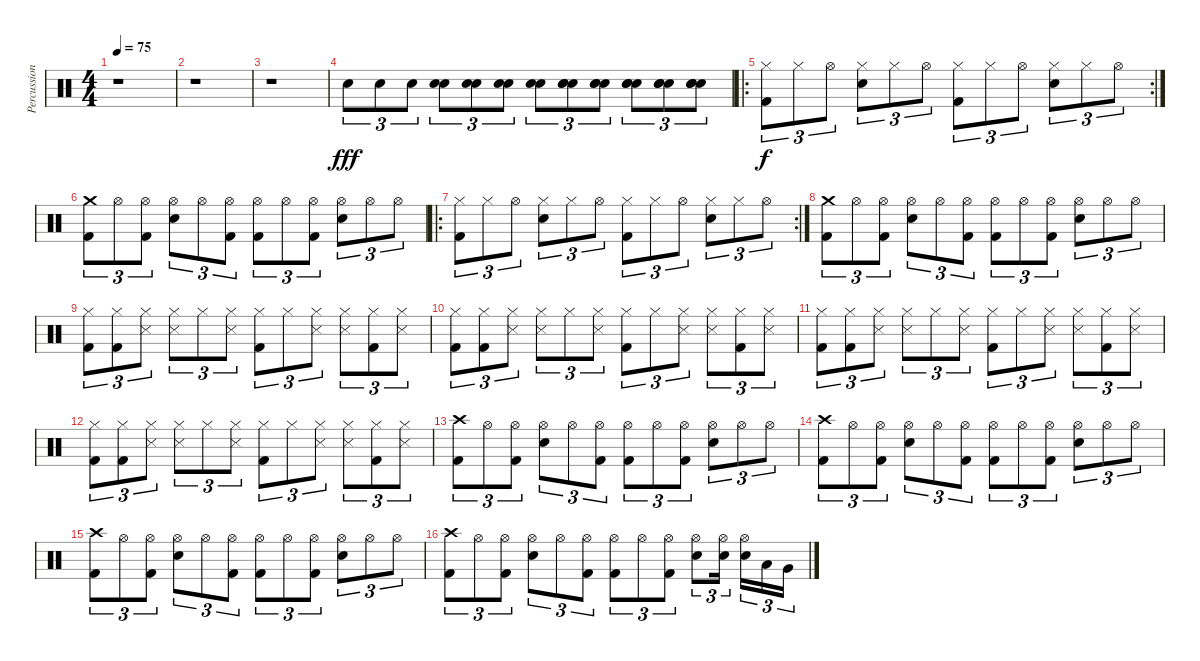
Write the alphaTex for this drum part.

\track ("Percussions" "Percussion") {instrument percussion}
\staff {score}
\articulation defaults
\ts (4 4)
\tempo 75
\clef neutral
\ks c
r.1{dy fff} |
r.1 |
r.1 |
"Electric Snare (hit)".8{tu (3 2)} "Electric Snare (hit)".8{tu (3 2)} "Electric Snare (hit)".8{tu (3 2)} ("Electric Snare (hit)" "Electric Snare (hit)").8{tu (3 2)} ("Electric Snare (hit)" "Electric Snare (hit)").8{tu (3 2)} ("Electric Snare (hit)" "Electric Snare (hit)").8{tu (3 2)} ("Electric Snare (hit)" "Electric Snare (hit)").8{tu (3 2)} ("Electric Snare (hit)" "Electric Snare (hit)" "Electric Snare (hit)").8{tu (3 2)} ("Electric Snare (hit)" "Electric Snare (hit)" "Electric Snare (hit)").8{tu (3 2)} ("Electric Snare (hit)" "Electric Snare (hit)" "Electric Snare (hit)").8{tu (3 2)} ("Electric Snare (hit)" "Electric Snare (hit)" "Electric Snare (hit)").8{tu (3 2)} ("Electric Snare (hit)" "Electric Snare (hit)" "Electric Snare (hit)").8{tu (3 2)} |
\ro
\rc 2
("Hi-Hat (closed)" "Kick (hit) 2").8{tu (3 2) dy f} "Hi-Hat (closed)".8{tu (3 2)} "Hi-Hat (open)".8{tu (3 2)} ("Hi-Hat (closed)" "Electric Snare (hit)").8{tu (3 2)} "Hi-Hat (closed)".8{tu (3 2)} "Hi-Hat (open)".8{tu (3 2)} ("Hi-Hat (closed)" "Kick (hit) 2").8{tu (3 2)} "Hi-Hat (closed)".8{tu (3 2)} "Hi-Hat (open)".8{tu (3 2)} ("Hi-Hat (closed)" "Electric Snare (hit)").8{tu (3 2)} "Hi-Hat (closed)".8{tu (3 2)} "Hi-Hat (open)".8{tu (3 2)} |
("Crash medium (hit)" "Kick (hit) 2").8{tu (3 2)} "Hi-Hat (open)".8{tu (3 2)} ("Hi-Hat (open)" "Kick (hit) 2").8{tu (3 2)} ("Hi-Hat (open)" "Electric Snare (hit)").8{tu (3 2)} "Hi-Hat (open)".8{tu (3 2)} ("Hi-Hat (open)" "Kick (hit) 2").8{tu (3 2)} ("Hi-Hat (open)" "Kick (hit) 2").8{tu (3 2)} "Hi-Hat (open)".8{tu (3 2)} ("Hi-Hat (open)" "Kick (hit) 2").8{tu (3 2)} ("Hi-Hat (open)" "Electric Snare (hit)").8{tu (3 2)} "Hi-Hat (open)".8{tu (3 2)} "Hi-Hat (open)".8{tu (3 2)} |
\ro
\rc 2
("Hi-Hat (closed)" "Kick (hit) 2").8{tu (3 2)} "Hi-Hat (closed)".8{tu (3 2)} "Hi-Hat (open)".8{tu (3 2)} ("Hi-Hat (closed)" "Electric Snare (hit)").8{tu (3 2)} "Hi-Hat (closed)".8{tu (3 2)} "Hi-Hat (open)".8{tu (3 2)} ("Hi-Hat (closed)" "Kick (hit) 2").8{tu (3 2)} "Hi-Hat (closed)".8{tu (3 2)} "Hi-Hat (open)".8{tu (3 2)} ("Hi-Hat (closed)" "Electric Snare (hit)").8{tu (3 2)} "Hi-Hat (closed)".8{tu (3 2)} "Hi-Hat (open)".8{tu (3 2)} |
("Crash medium (hit)" "Kick (hit) 2").8{tu (3 2)} "Hi-Hat (open)".8{tu (3 2)} ("Hi-Hat (open)" "Kick (hit) 2").8{tu (3 2)} ("Hi-Hat (open)" "Electric Snare (hit)").8{tu (3 2)} "Hi-Hat (open)".8{tu (3 2)} ("Hi-Hat (open)" "Kick (hit) 2").8{tu (3 2)} ("Hi-Hat (open)" "Kick (hit) 2").8{tu (3 2)} "Hi-Hat (open)".8{tu (3 2)} ("Hi-Hat (open)" "Kick (hit) 2").8{tu (3 2)} ("Hi-Hat (open)" "Electric Snare (hit)").8{tu (3 2)} "Hi-Hat (open)".8{tu (3 2)} "Hi-Hat (open)".8{tu (3 2)} |
("Hi-Hat (closed)" "Kick (hit) 2").8{tu (3 2)} ("Hi-Hat (closed)" "Kick (hit) 2").8{tu (3 2)} ("Hi-Hat (closed)" "Snare (side stick) 3").8{tu (3 2)} ("Hi-Hat (closed)" "Snare (side stick) 3").8{tu (3 2)} "Hi-Hat (closed)".8{tu (3 2)} ("Hi-Hat (closed)" "Snare (side stick) 3").8{tu (3 2)} ("Hi-Hat (closed)" "Kick (hit) 2").8{tu (3 2)} "Hi-Hat (closed)".8{tu (3 2)} ("Hi-Hat (closed)" "Snare (side stick) 3").8{tu (3 2)} ("Hi-Hat (closed)" "Snare (side stick) 3").8{tu (3 2)} ("Hi-Hat (closed)" "Kick (hit) 2").8{tu (3 2)} ("Hi-Hat (closed)" "Snare (side stick) 3").8{tu (3 2)} |
("Hi-Hat (closed)" "Kick (hit) 2").8{tu (3 2)} ("Hi-Hat (closed)" "Kick (hit) 2").8{tu (3 2)} ("Hi-Hat (closed)" "Snare (side stick) 3").8{tu (3 2)} ("Hi-Hat (closed)" "Snare (side stick) 3").8{tu (3 2)} "Hi-Hat (closed)".8{tu (3 2)} ("Hi-Hat (closed)" "Snare (side stick) 3").8{tu (3 2)} ("Hi-Hat (closed)" "Kick (hit) 2").8{tu (3 2)} "Hi-Hat (closed)".8{tu (3 2)} ("Hi-Hat (closed)" "Snare (side stick) 3").8{tu (3 2)} ("Hi-Hat (closed)" "Snare (side stick) 3").8{tu (3 2)} ("Hi-Hat (closed)" "Kick (hit) 2").8{tu (3 2)} ("Hi-Hat (closed)" "Snare (side stick) 3").8{tu (3 2)} |
("Hi-Hat (closed)" "Kick (hit) 2").8{tu (3 2)} ("Hi-Hat (closed)" "Kick (hit) 2").8{tu (3 2)} ("Hi-Hat (closed)" "Snare (side stick) 3").8{tu (3 2)} ("Hi-Hat (closed)" "Snare (side stick) 3").8{tu (3 2)} "Hi-Hat (closed)".8{tu (3 2)} ("Hi-Hat (closed)" "Snare (side stick) 3").8{tu (3 2)} ("Hi-Hat (closed)" "Kick (hit) 2").8{tu (3 2)} "Hi-Hat (closed)".8{tu (3 2)} ("Hi-Hat (closed)" "Snare (side stick) 3").8{tu (3 2)} ("Hi-Hat (closed)" "Snare (side stick) 3").8{tu (3 2)} ("Hi-Hat (closed)" "Kick (hit) 2").8{tu (3 2)} ("Hi-Hat (closed)" "Snare (side stick) 3").8{tu (3 2)} |
("Hi-Hat (closed)" "Kick (hit) 2").8{tu (3 2)} ("Hi-Hat (closed)" "Kick (hit) 2").8{tu (3 2)} ("Hi-Hat (closed)" "Snare (side stick) 3").8{tu (3 2)} ("Hi-Hat (closed)" "Snare (side stick) 3").8{tu (3 2)} "Hi-Hat (closed)".8{tu (3 2)} ("Hi-Hat (closed)" "Snare (side stick) 3").8{tu (3 2)} ("Hi-Hat (closed)" "Kick (hit) 2").8{tu (3 2)} "Hi-Hat (closed)".8{tu (3 2)} ("Hi-Hat (closed)" "Snare (side stick) 3").8{tu (3 2)} ("Hi-Hat (closed)" "Snare (side stick) 3").8{tu (3 2)} ("Hi-Hat (closed)" "Kick (hit) 2").8{tu (3 2)} ("Hi-Hat (closed)" "Snare (side stick) 3").8{tu (3 2)} |
("Crash high (hit)" "Kick (hit) 2").8{tu (3 2)} "Hi-Hat (open)".8{tu (3 2)} ("Hi-Hat (open)" "Kick (hit) 2").8{tu (3 2)} ("Hi-Hat (open)" "Electric Snare (hit)").8{tu (3 2)} "Hi-Hat (open)".8{tu (3 2)} ("Hi-Hat (open)" "Kick (hit) 2").8{tu (3 2)} ("Hi-Hat (open)" "Kick (hit) 2").8{tu (3 2)} "Hi-Hat (open)".8{tu (3 2)} ("Hi-Hat (open)" "Kick (hit) 2").8{tu (3 2)} ("Hi-Hat (open)" "Electric Snare (hit)").8{tu (3 2)} "Hi-Hat (open)".8{tu (3 2)} "Hi-Hat (open)".8{tu (3 2)} |
("Crash high (hit)" "Kick (hit) 2").8{tu (3 2)} "Hi-Hat (open)".8{tu (3 2)} ("Hi-Hat (open)" "Kick (hit) 2").8{tu (3 2)} ("Hi-Hat (open)" "Electric Snare (hit)").8{tu (3 2)} "Hi-Hat (open)".8{tu (3 2)} ("Hi-Hat (open)" "Kick (hit) 2").8{tu (3 2)} ("Hi-Hat (open)" "Kick (hit) 2").8{tu (3 2)} "Hi-Hat (open)".8{tu (3 2)} ("Hi-Hat (open)" "Kick (hit) 2").8{tu (3 2)} ("Hi-Hat (open)" "Electric Snare (hit)").8{tu (3 2)} "Hi-Hat (open)".8{tu (3 2)} "Hi-Hat (open)".8{tu (3 2)} |
("Crash high (hit)" "Kick (hit) 2").8{tu (3 2)} "Hi-Hat (open)".8{tu (3 2)} ("Hi-Hat (open)" "Kick (hit) 2").8{tu (3 2)} ("Hi-Hat (open)" "Electric Snare (hit)").8{tu (3 2)} "Hi-Hat (open)".8{tu (3 2)} ("Hi-Hat (open)" "Kick (hit) 2").8{tu (3 2)} ("Hi-Hat (open)" "Kick (hit) 2").8{tu (3 2)} "Hi-Hat (open)".8{tu (3 2)} ("Hi-Hat (open)" "Kick (hit) 2").8{tu (3 2)} ("Hi-Hat (open)" "Electric Snare (hit)").8{tu (3 2)} "Hi-Hat (open)".8{tu (3 2)} "Hi-Hat (open)".8{tu (3 2)} |
("Crash high (hit)" "Kick (hit) 2").8{tu (3 2)} "Hi-Hat (open)".8{tu (3 2)} ("Hi-Hat (open)" "Kick (hit) 2").8{tu (3 2)} ("Hi-Hat (open)" "Electric Snare (hit)").8{tu (3 2)} "Hi-Hat (open)".8{tu (3 2)} ("Hi-Hat (open)" "Kick (hit) 2").8{tu (3 2)} ("Hi-Hat (open)" "Kick (hit) 2").8{tu (3 2)} "Hi-Hat (open)".8{tu (3 2)} ("Hi-Hat (open)" "Kick (hit) 2").8{tu (3 2)} ("Hi-Hat (open)" "Electric Snare (hit)").8{tu (3 2)} ("Hi-Hat (open)" "Electric Snare (hit)").16{tu (3 2)} ("Hi-Hat (open)" "Electric Snare (hit)").16{tu (3 2)} "Low Tom (hit)".16{tu (3 2)} "Very Low Tom (hit)".16{tu (3 2)}
